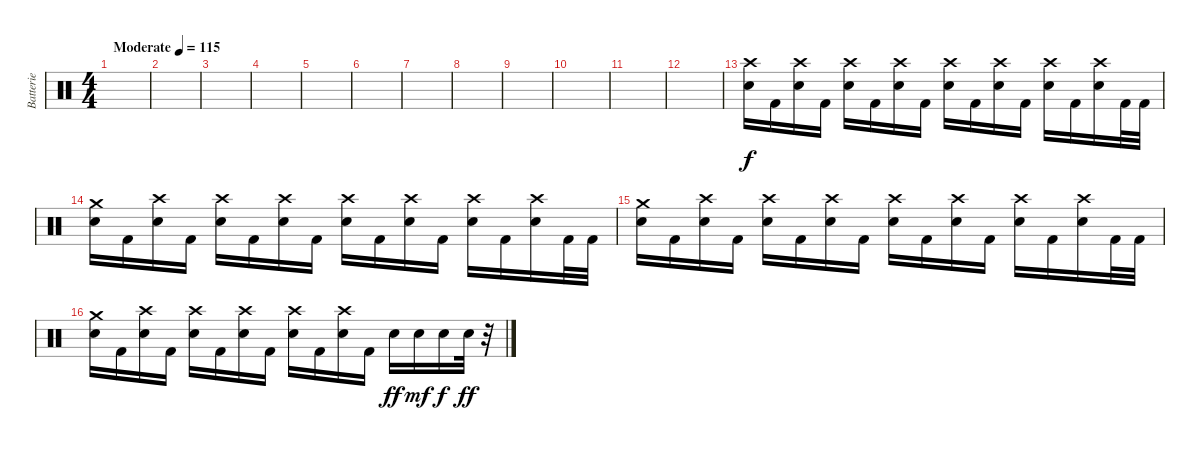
\track ("Batterie" "Batterie") {instrument percussion}
\staff {score}
\articulation defaults
\ts (4 4)
\tempo (115 "Moderate")
\clef neutral
\ks c
|
|
|
|
|
|
|
|
|
|
|
|
("Electric Snare (hit)" "Crash high (hit)").16 "Kick (hit) 2".16 ("Electric Snare (hit)" "Crash high (hit)").16 "Kick (hit) 2".16 ("Electric Snare (hit)" "Crash high (hit)").16 "Kick (hit) 2".16 ("Electric Snare (hit)" "Crash high (hit)").16 "Kick (hit) 2".16 ("Electric Snare (hit)" "Crash high (hit)").16 "Kick (hit) 2".16 ("Electric Snare (hit)" "Crash high (hit)").16 "Kick (hit) 2".16 ("Electric Snare (hit)" "Crash high (hit)").16 "Kick (hit) 2".16 ("Electric Snare (hit)" "Crash high (hit)").16 "Kick (hit) 2".32 "Kick (hit) 2".32 |
("Electric Snare (hit)" "Crash medium (hit)").16 "Kick (hit) 2".16 ("Electric Snare (hit)" "Crash high (hit)").16 "Kick (hit) 2".16 ("Electric Snare (hit)" "Crash high (hit)").16 "Kick (hit) 2".16 ("Electric Snare (hit)" "Crash high (hit)").16 "Kick (hit) 2".16 ("Electric Snare (hit)" "Crash high (hit)").16 "Kick (hit) 2".16 ("Electric Snare (hit)" "Crash high (hit)").16 "Kick (hit) 2".16 ("Electric Snare (hit)" "Crash high (hit)").16 "Kick (hit) 2".16 ("Electric Snare (hit)" "Crash high (hit)").16 "Kick (hit) 2".32 "Kick (hit) 2".32 |
("Electric Snare (hit)" "Crash medium (hit)").16 "Kick (hit) 2".16 ("Electric Snare (hit)" "Crash high (hit)").16 "Kick (hit) 2".16 ("Electric Snare (hit)" "Crash high (hit)").16 "Kick (hit) 2".16 ("Electric Snare (hit)" "Crash high (hit)").16 "Kick (hit) 2".16 ("Electric Snare (hit)" "Crash high (hit)").16 "Kick (hit) 2".16 ("Electric Snare (hit)" "Crash high (hit)").16 "Kick (hit) 2".16 ("Electric Snare (hit)" "Crash high (hit)").16 "Kick (hit) 2".16 ("Electric Snare (hit)" "Crash high (hit)").16 "Kick (hit) 2".32 "Kick (hit) 2".32 |
("Electric Snare (hit)" "Crash medium (hit)").16 "Kick (hit) 2".16 ("Electric Snare (hit)" "Crash high (hit)").16 "Kick (hit) 2".16 ("Electric Snare (hit)" "Crash high (hit)").16 "Kick (hit) 2".16 ("Electric Snare (hit)" "Crash high (hit)").16 "Kick (hit) 2".16 ("Electric Snare (hit)" "Crash high (hit)").16 "Kick (hit) 2".16 ("Electric Snare (hit)" "Crash high (hit)").16 "Kick (hit) 2".16 "Electric Snare (hit)".16{dy ff} "Electric Snare (hit)".16{dy mf} "Electric Snare (hit)".16{dy f} "Electric Snare (hit)".32{dy ff} r.32
